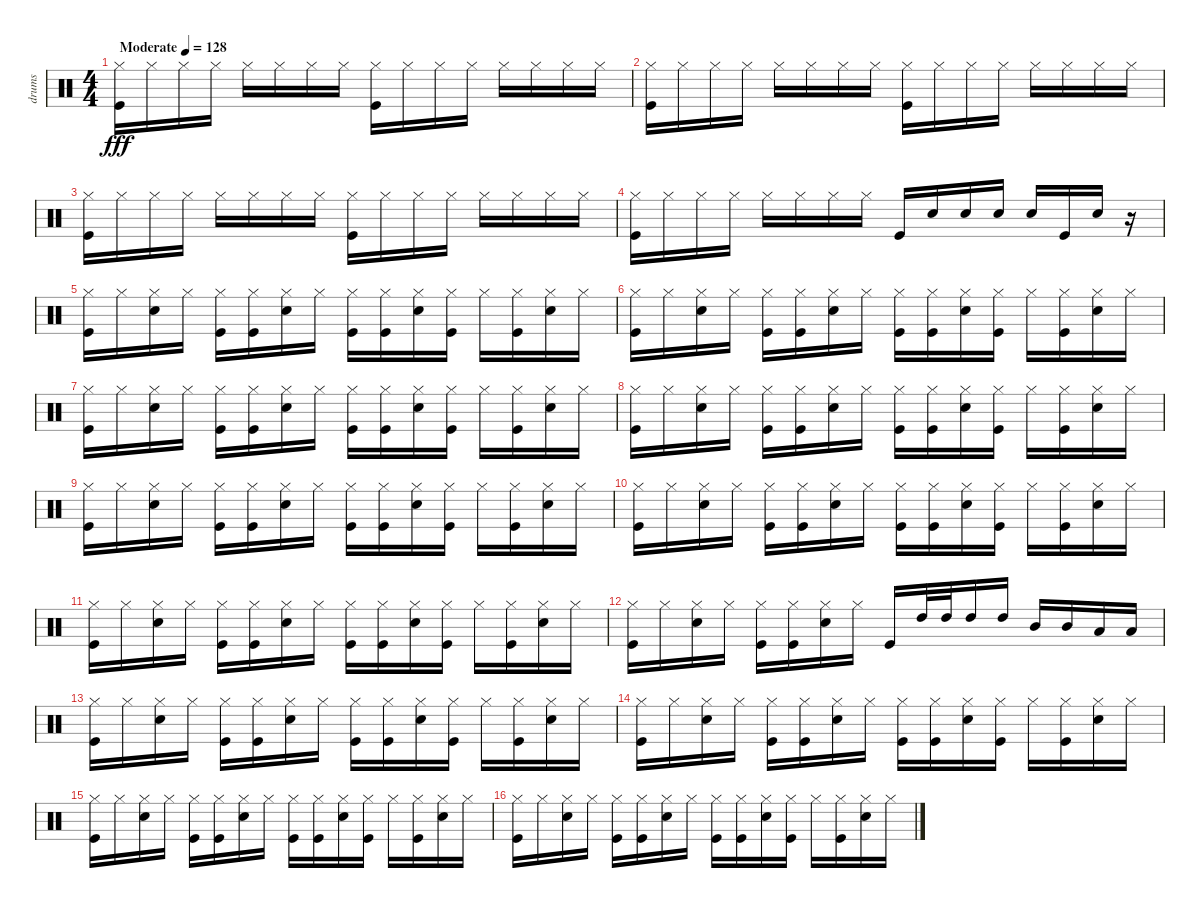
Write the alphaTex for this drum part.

\track ("drums" "drums") {instrument percussion}
\staff {score}
\articulation defaults
\ts (4 4)
\tempo (128 "Moderate")
\clef neutral
\ks c
("Kick (hit)" "Hi-Hat (closed)").16{dy fff} "Hi-Hat (closed)".16 "Hi-Hat (closed)".16 "Hi-Hat (closed)".16 "Hi-Hat (closed)".16 "Hi-Hat (closed)".16 "Hi-Hat (closed)".16 "Hi-Hat (closed)".16 ("Kick (hit)" "Hi-Hat (closed)").16 "Hi-Hat (closed)".16 "Hi-Hat (closed)".16 "Hi-Hat (closed)".16 "Hi-Hat (closed)".16 "Hi-Hat (closed)".16 "Hi-Hat (closed)".16 "Hi-Hat (closed)".16 |
("Kick (hit)" "Hi-Hat (closed)").16 "Hi-Hat (closed)".16 "Hi-Hat (closed)".16 "Hi-Hat (closed)".16 "Hi-Hat (closed)".16 "Hi-Hat (closed)".16 "Hi-Hat (closed)".16 "Hi-Hat (closed)".16 ("Kick (hit)" "Hi-Hat (closed)").16 "Hi-Hat (closed)".16 "Hi-Hat (closed)".16 "Hi-Hat (closed)".16 "Hi-Hat (closed)".16 "Hi-Hat (closed)".16 "Hi-Hat (closed)".16 "Hi-Hat (closed)".16 |
("Kick (hit)" "Hi-Hat (closed)").16 "Hi-Hat (closed)".16 "Hi-Hat (closed)".16 "Hi-Hat (closed)".16 "Hi-Hat (closed)".16 "Hi-Hat (closed)".16 "Hi-Hat (closed)".16 "Hi-Hat (closed)".16 ("Kick (hit)" "Hi-Hat (closed)").16 "Hi-Hat (closed)".16 "Hi-Hat (closed)".16 "Hi-Hat (closed)".16 "Hi-Hat (closed)".16 "Hi-Hat (closed)".16 "Hi-Hat (closed)".16 "Hi-Hat (closed)".16 |
("Kick (hit)" "Hi-Hat (closed)").16 "Hi-Hat (closed)".16 "Hi-Hat (closed)".16 "Hi-Hat (closed)".16 "Hi-Hat (closed)".16 "Hi-Hat (closed)".16 "Hi-Hat (closed)".16 "Hi-Hat (closed)".16 "Kick (hit)".16 "Snare (hit) 2".16 "Snare (hit) 2".16 "Snare (hit) 2".16 "Snare (hit) 2".16 "Kick (hit)".16 "Snare (hit) 2".16 r.16 |
("Hi-Hat (closed)" "Kick (hit)").16 "Hi-Hat (closed)".16 ("Hi-Hat (closed)" "Snare (hit) 2").16 "Hi-Hat (closed)".16 ("Kick (hit)" "Hi-Hat (closed)").16 ("Kick (hit)" "Hi-Hat (closed)").16 ("Snare (hit) 2" "Hi-Hat (closed)").16 "Hi-Hat (closed)".16 ("Kick (hit)" "Hi-Hat (closed)").16 ("Kick (hit)" "Hi-Hat (closed)").16 ("Snare (hit) 2" "Hi-Hat (closed)").16 ("Hi-Hat (closed)" "Kick (hit)").16 "Hi-Hat (closed)".16 ("Kick (hit)" "Hi-Hat (closed)").16 ("Snare (hit) 2" "Hi-Hat (closed)").16 "Hi-Hat (closed)".16 |
("Hi-Hat (closed)" "Kick (hit)").16 "Hi-Hat (closed)".16 ("Hi-Hat (closed)" "Snare (hit) 2").16 "Hi-Hat (closed)".16 ("Kick (hit)" "Hi-Hat (closed)").16 ("Kick (hit)" "Hi-Hat (closed)").16 ("Snare (hit) 2" "Hi-Hat (closed)").16 "Hi-Hat (closed)".16 ("Kick (hit)" "Hi-Hat (closed)").16 ("Kick (hit)" "Hi-Hat (closed)").16 ("Snare (hit) 2" "Hi-Hat (closed)").16 ("Hi-Hat (closed)" "Kick (hit)").16 "Hi-Hat (closed)".16 ("Kick (hit)" "Hi-Hat (closed)").16 ("Snare (hit) 2" "Hi-Hat (closed)").16 "Hi-Hat (closed)".16 |
("Hi-Hat (closed)" "Kick (hit)").16 "Hi-Hat (closed)".16 ("Hi-Hat (closed)" "Snare (hit) 2").16 "Hi-Hat (closed)".16 ("Kick (hit)" "Hi-Hat (closed)").16 ("Kick (hit)" "Hi-Hat (closed)").16 ("Snare (hit) 2" "Hi-Hat (closed)").16 "Hi-Hat (closed)".16 ("Kick (hit)" "Hi-Hat (closed)").16 ("Kick (hit)" "Hi-Hat (closed)").16 ("Snare (hit) 2" "Hi-Hat (closed)").16 ("Hi-Hat (closed)" "Kick (hit)").16 "Hi-Hat (closed)".16 ("Kick (hit)" "Hi-Hat (closed)").16 ("Snare (hit) 2" "Hi-Hat (closed)").16 "Hi-Hat (closed)".16 |
("Hi-Hat (closed)" "Kick (hit)").16 "Hi-Hat (closed)".16 ("Hi-Hat (closed)" "Snare (hit) 2").16 "Hi-Hat (closed)".16 ("Kick (hit)" "Hi-Hat (closed)").16 ("Kick (hit)" "Hi-Hat (closed)").16 ("Snare (hit) 2" "Hi-Hat (closed)").16 "Hi-Hat (closed)".16 ("Kick (hit)" "Hi-Hat (closed)").16 ("Kick (hit)" "Hi-Hat (closed)").16 ("Snare (hit) 2" "Hi-Hat (closed)").16 ("Hi-Hat (closed)" "Kick (hit)").16 "Hi-Hat (closed)".16 ("Kick (hit)" "Hi-Hat (closed)").16 ("Snare (hit) 2" "Hi-Hat (closed)").16 "Hi-Hat (closed)".16 |
("Hi-Hat (closed)" "Kick (hit)").16 "Hi-Hat (closed)".16 ("Hi-Hat (closed)" "Snare (hit) 2").16 "Hi-Hat (closed)".16 ("Kick (hit)" "Hi-Hat (closed)").16 ("Kick (hit)" "Hi-Hat (closed)").16 ("Snare (hit) 2" "Hi-Hat (closed)").16 "Hi-Hat (closed)".16 ("Kick (hit)" "Hi-Hat (closed)").16 ("Kick (hit)" "Hi-Hat (closed)").16 ("Snare (hit) 2" "Hi-Hat (closed)").16 ("Hi-Hat (closed)" "Kick (hit)").16 "Hi-Hat (closed)".16 ("Kick (hit)" "Hi-Hat (closed)").16 ("Snare (hit) 2" "Hi-Hat (closed)").16 "Hi-Hat (closed)".16 |
("Hi-Hat (closed)" "Kick (hit)").16 "Hi-Hat (closed)".16 ("Hi-Hat (closed)" "Snare (hit) 2").16 "Hi-Hat (closed)".16 ("Kick (hit)" "Hi-Hat (closed)").16 ("Kick (hit)" "Hi-Hat (closed)").16 ("Snare (hit) 2" "Hi-Hat (closed)").16 "Hi-Hat (closed)".16 ("Kick (hit)" "Hi-Hat (closed)").16 ("Kick (hit)" "Hi-Hat (closed)").16 ("Snare (hit) 2" "Hi-Hat (closed)").16 ("Hi-Hat (closed)" "Kick (hit)").16 "Hi-Hat (closed)".16 ("Kick (hit)" "Hi-Hat (closed)").16 ("Snare (hit) 2" "Hi-Hat (closed)").16 "Hi-Hat (closed)".16 |
("Hi-Hat (closed)" "Kick (hit)").16 "Hi-Hat (closed)".16 ("Hi-Hat (closed)" "Snare (hit) 2").16 "Hi-Hat (closed)".16 ("Kick (hit)" "Hi-Hat (closed)").16 ("Kick (hit)" "Hi-Hat (closed)").16 ("Snare (hit) 2" "Hi-Hat (closed)").16 "Hi-Hat (closed)".16 ("Kick (hit)" "Hi-Hat (closed)").16 ("Kick (hit)" "Hi-Hat (closed)").16 ("Snare (hit) 2" "Hi-Hat (closed)").16 ("Hi-Hat (closed)" "Kick (hit)").16 "Hi-Hat (closed)".16 ("Kick (hit)" "Hi-Hat (closed)").16 ("Snare (hit) 2" "Hi-Hat (closed)").16 "Hi-Hat (closed)".16 |
("Hi-Hat (closed)" "Kick (hit)").16 "Hi-Hat (closed)".16 ("Hi-Hat (closed)" "Snare (hit) 2").16 "Hi-Hat (closed)".16 ("Kick (hit)" "Hi-Hat (closed)").16 ("Kick (hit)" "Hi-Hat (closed)").16 ("Snare (hit) 2" "Hi-Hat (closed)").16 "Hi-Hat (closed)".16 "Kick (hit)".16 "High Tom (hit)".32 "High Tom (hit)".32 "High Tom (hit)".16 "High Tom (hit)".16 "Mid Tom (hit)".16 "Mid Tom (hit)".16 "Low Tom (hit)".16 "Low Tom (hit)".16 |
("Hi-Hat (closed)" "Kick (hit)").16 "Hi-Hat (closed)".16 ("Hi-Hat (closed)" "Snare (hit) 2").16 "Hi-Hat (closed)".16 ("Kick (hit)" "Hi-Hat (closed)").16 ("Kick (hit)" "Hi-Hat (closed)").16 ("Snare (hit) 2" "Hi-Hat (closed)").16 "Hi-Hat (closed)".16 ("Kick (hit)" "Hi-Hat (closed)").16 ("Kick (hit)" "Hi-Hat (closed)").16 ("Snare (hit) 2" "Hi-Hat (closed)").16 ("Hi-Hat (closed)" "Kick (hit)").16 "Hi-Hat (closed)".16 ("Kick (hit)" "Hi-Hat (closed)").16 ("Snare (hit) 2" "Hi-Hat (closed)").16 "Hi-Hat (closed)".16 |
("Hi-Hat (closed)" "Kick (hit)").16 "Hi-Hat (closed)".16 ("Hi-Hat (closed)" "Snare (hit) 2").16 "Hi-Hat (closed)".16 ("Kick (hit)" "Hi-Hat (closed)").16 ("Kick (hit)" "Hi-Hat (closed)").16 ("Snare (hit) 2" "Hi-Hat (closed)").16 "Hi-Hat (closed)".16 ("Kick (hit)" "Hi-Hat (closed)").16 ("Kick (hit)" "Hi-Hat (closed)").16 ("Snare (hit) 2" "Hi-Hat (closed)").16 ("Hi-Hat (closed)" "Kick (hit)").16 "Hi-Hat (closed)".16 ("Kick (hit)" "Hi-Hat (closed)").16 ("Snare (hit) 2" "Hi-Hat (closed)").16 "Hi-Hat (closed)".16 |
("Hi-Hat (closed)" "Kick (hit)").16 "Hi-Hat (closed)".16 ("Hi-Hat (closed)" "Snare (hit) 2").16 "Hi-Hat (closed)".16 ("Kick (hit)" "Hi-Hat (closed)").16 ("Kick (hit)" "Hi-Hat (closed)").16 ("Snare (hit) 2" "Hi-Hat (closed)").16 "Hi-Hat (closed)".16 ("Kick (hit)" "Hi-Hat (closed)").16 ("Kick (hit)" "Hi-Hat (closed)").16 ("Snare (hit) 2" "Hi-Hat (closed)").16 ("Hi-Hat (closed)" "Kick (hit)").16 "Hi-Hat (closed)".16 ("Kick (hit)" "Hi-Hat (closed)").16 ("Snare (hit) 2" "Hi-Hat (closed)").16 "Hi-Hat (closed)".16 |
("Hi-Hat (closed)" "Kick (hit)").16 "Hi-Hat (closed)".16 ("Hi-Hat (closed)" "Snare (hit) 2").16 "Hi-Hat (closed)".16 ("Kick (hit)" "Hi-Hat (closed)").16 ("Kick (hit)" "Hi-Hat (closed)").16 ("Snare (hit) 2" "Hi-Hat (closed)").16 "Hi-Hat (closed)".16 ("Kick (hit)" "Hi-Hat (closed)").16 ("Kick (hit)" "Hi-Hat (closed)").16 ("Snare (hit) 2" "Hi-Hat (closed)").16 ("Hi-Hat (closed)" "Kick (hit)").16 "Hi-Hat (closed)".16 ("Kick (hit)" "Hi-Hat (closed)").16 ("Snare (hit) 2" "Hi-Hat (closed)").16 "Hi-Hat (closed)".16
